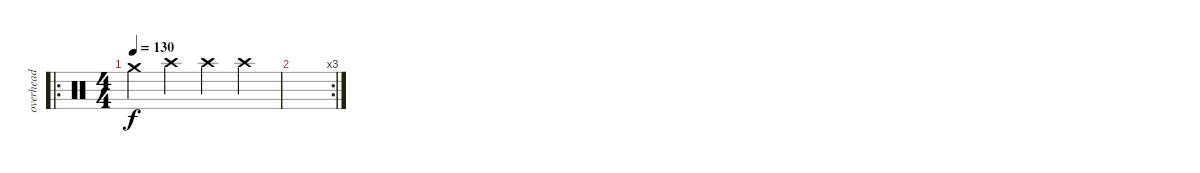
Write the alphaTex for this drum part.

\track ("overhead " "overhead ") {instrument percussion}
\staff {score}
\articulation defaults
\ro
\ts (4 4)
\tempo 130
\clef neutral
\ks c "Crash medium (hit)".4{dy f} "Crash high (hit)".4 "Crash high (hit)".4 "Crash high (hit)".4
|
\rc 3
